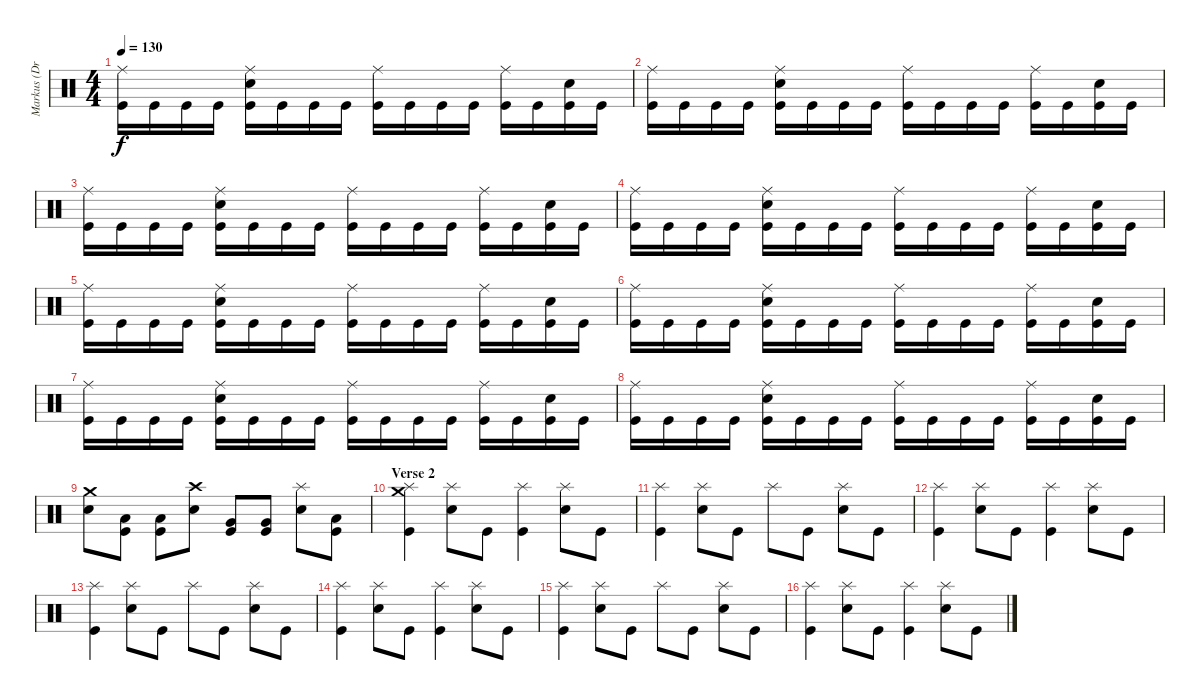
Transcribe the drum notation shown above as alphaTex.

\track ("Markus (Drums)" "Markus (Dr") {instrument percussion}
\staff {score}
\articulation defaults
\ts (4 4)
\tempo 130
\clef neutral
\ks c
("Ride (middle)" "Kick (hit)").16{dy f} "Kick (hit)".16 "Kick (hit)".16 "Kick (hit)".16 ("Ride (middle)" "Electric Snare (hit)" "Kick (hit)").16 "Kick (hit)".16 "Kick (hit)".16 "Kick (hit)".16 ("Ride (middle)" "Kick (hit)").16 "Kick (hit)".16 "Kick (hit)".16 "Kick (hit)".16 ("Ride (middle)" "Kick (hit)").16 "Kick (hit)".16 ("Electric Snare (hit)" "Kick (hit)").16 "Kick (hit)".16 |
("Ride (middle)" "Kick (hit)").16 "Kick (hit)".16 "Kick (hit)".16 "Kick (hit)".16 ("Ride (middle)" "Electric Snare (hit)" "Kick (hit)").16 "Kick (hit)".16 "Kick (hit)".16 "Kick (hit)".16 ("Ride (middle)" "Kick (hit)").16 "Kick (hit)".16 "Kick (hit)".16 "Kick (hit)".16 ("Ride (middle)" "Kick (hit)").16 "Kick (hit)".16 ("Electric Snare (hit)" "Kick (hit)").16 "Kick (hit)".16 |
("Ride (middle)" "Kick (hit)").16 "Kick (hit)".16 "Kick (hit)".16 "Kick (hit)".16 ("Ride (middle)" "Electric Snare (hit)" "Kick (hit)").16 "Kick (hit)".16 "Kick (hit)".16 "Kick (hit)".16 ("Ride (middle)" "Kick (hit)").16 "Kick (hit)".16 "Kick (hit)".16 "Kick (hit)".16 ("Ride (middle)" "Kick (hit)").16 "Kick (hit)".16 ("Electric Snare (hit)" "Kick (hit)").16 "Kick (hit)".16 |
("Ride (middle)" "Kick (hit)").16 "Kick (hit)".16 "Kick (hit)".16 "Kick (hit)".16 ("Ride (middle)" "Electric Snare (hit)" "Kick (hit)").16 "Kick (hit)".16 "Kick (hit)".16 "Kick (hit)".16 ("Ride (middle)" "Kick (hit)").16 "Kick (hit)".16 "Kick (hit)".16 "Kick (hit)".16 ("Ride (middle)" "Kick (hit)").16 "Kick (hit)".16 ("Electric Snare (hit)" "Kick (hit)").16 "Kick (hit)".16 |
("Ride (middle)" "Kick (hit)").16 "Kick (hit)".16 "Kick (hit)".16 "Kick (hit)".16 ("Ride (middle)" "Electric Snare (hit)" "Kick (hit)").16 "Kick (hit)".16 "Kick (hit)".16 "Kick (hit)".16 ("Ride (middle)" "Kick (hit)").16 "Kick (hit)".16 "Kick (hit)".16 "Kick (hit)".16 ("Ride (middle)" "Kick (hit)").16 "Kick (hit)".16 ("Electric Snare (hit)" "Kick (hit)").16 "Kick (hit)".16 |
("Ride (middle)" "Kick (hit)").16 "Kick (hit)".16 "Kick (hit)".16 "Kick (hit)".16 ("Ride (middle)" "Electric Snare (hit)" "Kick (hit)").16 "Kick (hit)".16 "Kick (hit)".16 "Kick (hit)".16 ("Ride (middle)" "Kick (hit)").16 "Kick (hit)".16 "Kick (hit)".16 "Kick (hit)".16 ("Ride (middle)" "Kick (hit)").16 "Kick (hit)".16 ("Electric Snare (hit)" "Kick (hit)").16 "Kick (hit)".16 |
("Ride (middle)" "Kick (hit)").16 "Kick (hit)".16 "Kick (hit)".16 "Kick (hit)".16 ("Ride (middle)" "Electric Snare (hit)" "Kick (hit)").16 "Kick (hit)".16 "Kick (hit)".16 "Kick (hit)".16 ("Ride (middle)" "Kick (hit)").16 "Kick (hit)".16 "Kick (hit)".16 "Kick (hit)".16 ("Ride (middle)" "Kick (hit)").16 "Kick (hit)".16 ("Electric Snare (hit)" "Kick (hit)").16 "Kick (hit)".16 |
("Ride (middle)" "Kick (hit)").16 "Kick (hit)".16 "Kick (hit)".16 "Kick (hit)".16 ("Ride (middle)" "Electric Snare (hit)" "Kick (hit)").16 "Kick (hit)".16 "Kick (hit)".16 "Kick (hit)".16 ("Ride (middle)" "Kick (hit)").16 "Kick (hit)".16 "Kick (hit)".16 "Kick (hit)".16 ("Ride (middle)" "Kick (hit)").16 "Kick (hit)".16 ("Electric Snare (hit)" "Kick (hit)").16 "Kick (hit)".16 |
("Crash medium (hit)" "Electric Snare (hit)").8 ("Low Tom (hit)" "Kick (hit)").8 ("Low Tom (hit)" "Kick (hit)").8 ("Crash high (hit)" "Electric Snare (hit)").8 ("Very Low Tom (hit)" "Kick (hit)").8 ("Very Low Tom (hit)" "Kick (hit)").8 ("Splash (hit)" "Electric Snare (hit)").8 ("Low Floor Tom (hit)" "Kick (hit)").8 |
\section ("" "Verse 2")
("Crash medium (hit)" "Splash (hit)" "Kick (hit)").4 ("Splash (hit)" "Electric Snare (hit)").8 "Kick (hit)".8 ("Splash (hit)" "Kick (hit)").4 ("Splash (hit)" "Electric Snare (hit)").8 "Kick (hit)".8 |
("Splash (hit)" "Kick (hit)").4 ("Splash (hit)" "Electric Snare (hit)").8 "Kick (hit)".8 "Splash (hit)".8 "Kick (hit)".8 ("Splash (hit)" "Electric Snare (hit)").8 "Kick (hit)".8 |
("Splash (hit)" "Kick (hit)").4 ("Splash (hit)" "Electric Snare (hit)").8 "Kick (hit)".8 ("Splash (hit)" "Kick (hit)").4 ("Splash (hit)" "Electric Snare (hit)").8 "Kick (hit)".8 |
("Splash (hit)" "Kick (hit)").4 ("Splash (hit)" "Electric Snare (hit)").8 "Kick (hit)".8 "Splash (hit)".8 "Kick (hit)".8 ("Splash (hit)" "Electric Snare (hit)").8 "Kick (hit)".8 |
("Splash (hit)" "Kick (hit)").4 ("Splash (hit)" "Electric Snare (hit)").8 "Kick (hit)".8 ("Splash (hit)" "Kick (hit)").4 ("Splash (hit)" "Electric Snare (hit)").8 "Kick (hit)".8 |
("Splash (hit)" "Kick (hit)").4 ("Splash (hit)" "Electric Snare (hit)").8 "Kick (hit)".8 "Splash (hit)".8 "Kick (hit)".8 ("Splash (hit)" "Electric Snare (hit)").8 "Kick (hit)".8 |
("Splash (hit)" "Kick (hit)").4 ("Splash (hit)" "Electric Snare (hit)").8 "Kick (hit)".8 ("Splash (hit)" "Kick (hit)").4 ("Splash (hit)" "Electric Snare (hit)").8 "Kick (hit)".8
